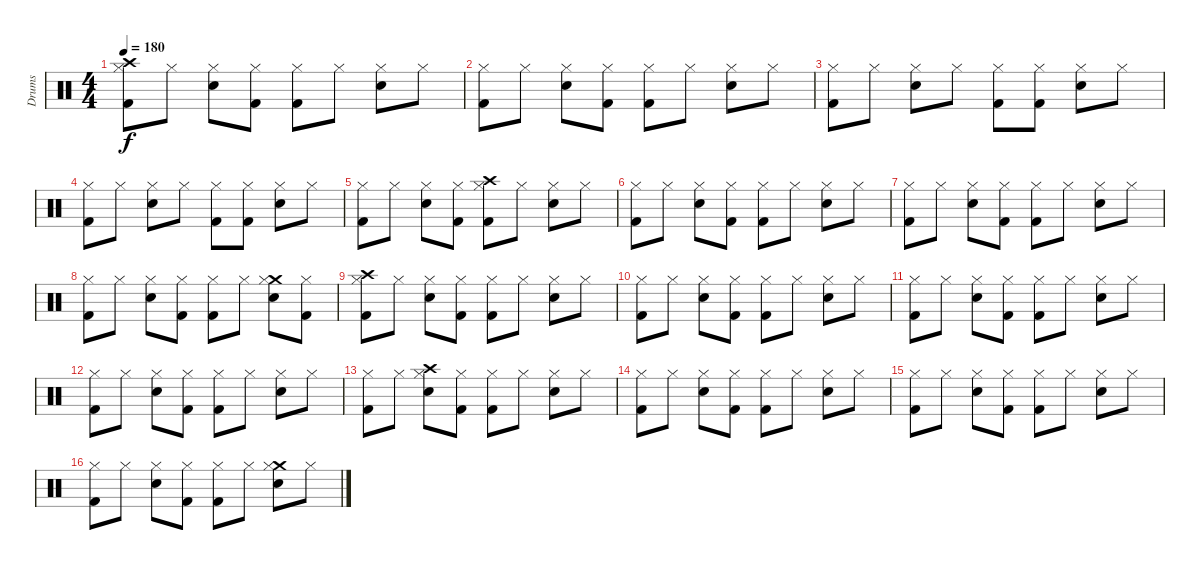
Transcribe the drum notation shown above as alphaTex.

\track ("Drums" "Drums") {instrument percussion}
\staff {score}
\articulation defaults
\ts (4 4)
\tempo 180
\clef neutral
\ks c
("Crash high (hit)" "Hi-Hat (closed)" "Kick (hit) 2").8{dy f} "Hi-Hat (closed)".8 ("Hi-Hat (closed)" "Snare (hit) 2").8 ("Hi-Hat (closed)" "Kick (hit) 2").8 ("Hi-Hat (closed)" "Kick (hit) 2").8 "Hi-Hat (closed)".8 ("Hi-Hat (closed)" "Snare (hit) 2").8 "Hi-Hat (closed)".8 |
("Hi-Hat (closed)" "Kick (hit) 2").8 "Hi-Hat (closed)".8 ("Hi-Hat (closed)" "Snare (hit) 2").8 ("Hi-Hat (closed)" "Kick (hit) 2").8 ("Hi-Hat (closed)" "Kick (hit) 2").8 "Hi-Hat (closed)".8 ("Hi-Hat (closed)" "Snare (hit) 2").8 "Hi-Hat (closed)".8 |
("Hi-Hat (closed)" "Kick (hit) 2").8 "Hi-Hat (closed)".8 ("Hi-Hat (closed)" "Snare (hit) 2").8 "Hi-Hat (closed)".8 ("Hi-Hat (closed)" "Kick (hit) 2").8 ("Hi-Hat (closed)" "Kick (hit) 2").8 ("Hi-Hat (closed)" "Snare (hit) 2").8 "Hi-Hat (closed)".8 |
("Hi-Hat (closed)" "Kick (hit) 2").8 "Hi-Hat (closed)".8 ("Hi-Hat (closed)" "Snare (hit) 2").8 "Hi-Hat (closed)".8 ("Hi-Hat (closed)" "Kick (hit) 2").8 ("Hi-Hat (closed)" "Kick (hit) 2").8 ("Hi-Hat (closed)" "Snare (hit) 2").8 "Hi-Hat (closed)".8 |
("Hi-Hat (closed)" "Kick (hit) 2").8 "Hi-Hat (closed)".8 ("Hi-Hat (closed)" "Snare (hit) 2").8 ("Hi-Hat (closed)" "Kick (hit) 2").8 ("Crash high (hit)" "Hi-Hat (closed)" "Kick (hit) 2").8 "Hi-Hat (closed)".8 ("Hi-Hat (closed)" "Snare (hit) 2").8 "Hi-Hat (closed)".8 |
("Hi-Hat (closed)" "Kick (hit) 2").8 "Hi-Hat (closed)".8 ("Hi-Hat (closed)" "Snare (hit) 2").8 ("Hi-Hat (closed)" "Kick (hit) 2").8 ("Hi-Hat (closed)" "Kick (hit) 2").8 "Hi-Hat (closed)".8 ("Hi-Hat (closed)" "Snare (hit) 2").8 "Hi-Hat (closed)".8 |
("Hi-Hat (closed)" "Kick (hit) 2").8 "Hi-Hat (closed)".8 ("Hi-Hat (closed)" "Snare (hit) 2").8 ("Hi-Hat (closed)" "Kick (hit) 2").8 ("Hi-Hat (closed)" "Kick (hit) 2").8 "Hi-Hat (closed)".8 ("Hi-Hat (closed)" "Snare (hit) 2").8 "Hi-Hat (closed)".8 |
("Hi-Hat (closed)" "Kick (hit) 2").8 "Hi-Hat (closed)".8 ("Hi-Hat (closed)" "Snare (hit) 2").8 ("Hi-Hat (closed)" "Kick (hit) 2").8 ("Hi-Hat (closed)" "Kick (hit) 2").8 "Hi-Hat (closed)".8 ("Crash medium (hit)" "Hi-Hat (closed)" "Snare (hit) 2").8 ("Hi-Hat (closed)" "Kick (hit) 2").8 |
("Crash high (hit)" "Hi-Hat (closed)" "Kick (hit) 2").8 "Hi-Hat (closed)".8 ("Hi-Hat (closed)" "Snare (hit) 2").8 ("Hi-Hat (closed)" "Kick (hit) 2").8 ("Hi-Hat (closed)" "Kick (hit) 2").8 "Hi-Hat (closed)".8 ("Hi-Hat (closed)" "Snare (hit) 2").8 "Hi-Hat (closed)".8 |
("Hi-Hat (closed)" "Kick (hit) 2").8 "Hi-Hat (closed)".8 ("Hi-Hat (closed)" "Snare (hit) 2").8 ("Hi-Hat (closed)" "Kick (hit) 2").8 ("Hi-Hat (closed)" "Kick (hit) 2").8 "Hi-Hat (closed)".8 ("Hi-Hat (closed)" "Snare (hit) 2").8 "Hi-Hat (closed)".8 |
("Hi-Hat (closed)" "Kick (hit) 2").8 "Hi-Hat (closed)".8 ("Hi-Hat (closed)" "Snare (hit) 2").8 ("Hi-Hat (closed)" "Kick (hit) 2").8 ("Hi-Hat (closed)" "Kick (hit) 2").8 "Hi-Hat (closed)".8 ("Hi-Hat (closed)" "Snare (hit) 2").8 "Hi-Hat (closed)".8 |
("Hi-Hat (closed)" "Kick (hit) 2").8 "Hi-Hat (closed)".8 ("Hi-Hat (closed)" "Snare (hit) 2").8 ("Hi-Hat (closed)" "Kick (hit) 2").8 ("Hi-Hat (closed)" "Kick (hit) 2").8 "Hi-Hat (closed)".8 ("Hi-Hat (closed)" "Snare (hit) 2").8 "Hi-Hat (closed)".8 |
("Hi-Hat (closed)" "Kick (hit) 2").8 "Hi-Hat (closed)".8 ("Crash high (hit)" "Hi-Hat (closed)" "Snare (hit) 2").8 ("Hi-Hat (closed)" "Kick (hit) 2").8 ("Hi-Hat (closed)" "Kick (hit) 2").8 "Hi-Hat (closed)".8 ("Hi-Hat (closed)" "Snare (hit) 2").8 "Hi-Hat (closed)".8 |
("Hi-Hat (closed)" "Kick (hit) 2").8 "Hi-Hat (closed)".8 ("Hi-Hat (closed)" "Snare (hit) 2").8 ("Hi-Hat (closed)" "Kick (hit) 2").8 ("Hi-Hat (closed)" "Kick (hit) 2").8 "Hi-Hat (closed)".8 ("Hi-Hat (closed)" "Snare (hit) 2").8 "Hi-Hat (closed)".8 |
("Hi-Hat (closed)" "Kick (hit) 2").8 "Hi-Hat (closed)".8 ("Hi-Hat (closed)" "Snare (hit) 2").8 ("Hi-Hat (closed)" "Kick (hit) 2").8 ("Hi-Hat (closed)" "Kick (hit) 2").8 "Hi-Hat (closed)".8 ("Hi-Hat (closed)" "Snare (hit) 2").8 "Hi-Hat (closed)".8 |
("Hi-Hat (closed)" "Kick (hit) 2").8 "Hi-Hat (closed)".8 ("Hi-Hat (closed)" "Snare (hit) 2").8 ("Hi-Hat (closed)" "Kick (hit) 2").8 ("Hi-Hat (closed)" "Kick (hit) 2").8 "Hi-Hat (closed)".8 ("Crash medium (hit)" "Hi-Hat (closed)" "Snare (hit) 2").8 "Hi-Hat (closed)".8
